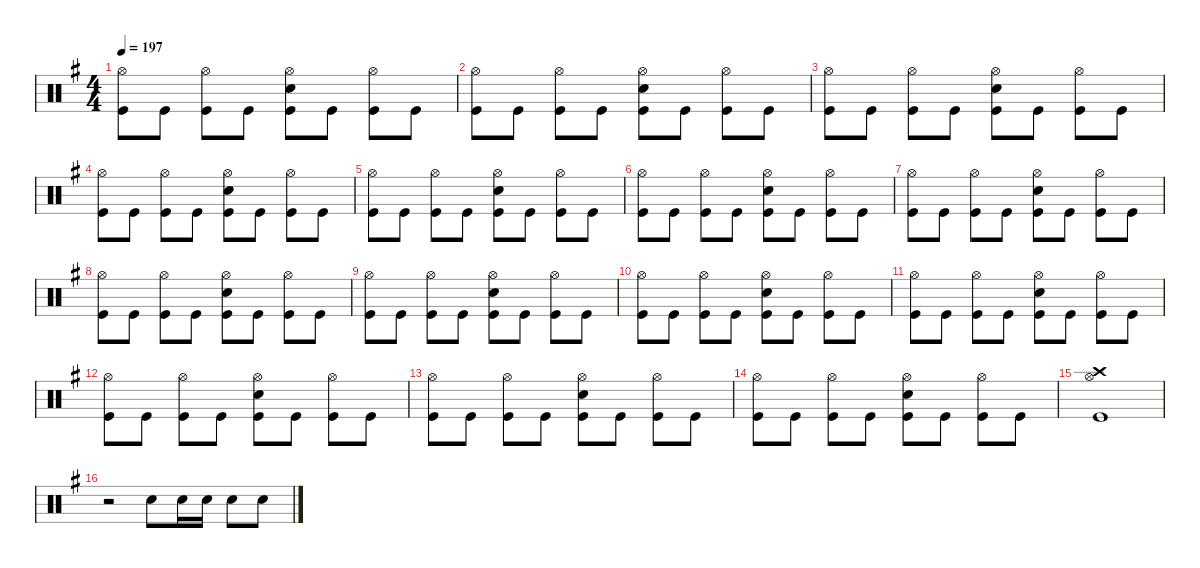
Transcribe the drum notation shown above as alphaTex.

\defaultSystemsLayout 4
\hideDynamics
\bracketExtendMode nobrackets
\singleTrackTrackNamePolicy hidden
\multiTrackTrackNamePolicy hidden
\firstSystemTrackNameMode fullname
\firstSystemTrackNameOrientation horizontal
\otherSystemsTrackNameOrientation horizontal
\track ("Drums" "drm.") {defaultSystemsLayout 4 instrument percussion}
\staff {score}
\articulation defaults
\ts (4 4)
\tempo 197
\clef neutral
\ks eminor
("Hi-Hat (open)"{acc forcenatural} "Kick (hit)"{acc forcenatural}).8{dy f beam Down} "Kick (hit)"{acc forcenatural}.8{beam Down} ("Hi-Hat (open)"{acc forcenatural} "Kick (hit)"{acc forcenatural}).8{beam Down} "Kick (hit)"{acc forcenatural}.8{beam Down} ("Hi-Hat (open)"{acc forcenatural} "Snare (hit) 2"{acc forcenatural} "Kick (hit)"{acc forcenatural}).8{beam Down} "Kick (hit)"{acc forcenatural}.8{beam Down} ("Hi-Hat (open)"{acc forcenatural} "Kick (hit)"{acc forcenatural}).8{beam Down} "Kick (hit)"{acc forcenatural}.8{beam Down} |
("Hi-Hat (open)"{acc forcenatural} "Kick (hit)"{acc forcenatural}).8{beam Down} "Kick (hit)"{acc forcenatural}.8{beam Down} ("Hi-Hat (open)"{acc forcenatural} "Kick (hit)"{acc forcenatural}).8{beam Down} "Kick (hit)"{acc forcenatural}.8{beam Down} ("Hi-Hat (open)"{acc forcenatural} "Snare (hit) 2"{acc forcenatural} "Kick (hit)"{acc forcenatural}).8{beam Down} "Kick (hit)"{acc forcenatural}.8{beam Down} ("Hi-Hat (open)"{acc forcenatural} "Kick (hit)"{acc forcenatural}).8{beam Down} "Kick (hit)"{acc forcenatural}.8{beam Down} |
("Hi-Hat (open)"{acc forcenatural} "Kick (hit)"{acc forcenatural}).8{beam Down} "Kick (hit)"{acc forcenatural}.8{beam Down} ("Hi-Hat (open)"{acc forcenatural} "Kick (hit)"{acc forcenatural}).8{beam Down} "Kick (hit)"{acc forcenatural}.8{beam Down} ("Hi-Hat (open)"{acc forcenatural} "Snare (hit) 2"{acc forcenatural} "Kick (hit)"{acc forcenatural}).8{beam Down} "Kick (hit)"{acc forcenatural}.8{beam Down} ("Hi-Hat (open)"{acc forcenatural} "Kick (hit)"{acc forcenatural}).8{beam Down} "Kick (hit)"{acc forcenatural}.8{beam Down} |
("Hi-Hat (open)"{acc forcenatural} "Kick (hit)"{acc forcenatural}).8{beam Down} "Kick (hit)"{acc forcenatural}.8{beam Down} ("Hi-Hat (open)"{acc forcenatural} "Kick (hit)"{acc forcenatural}).8{beam Down} "Kick (hit)"{acc forcenatural}.8{beam Down} ("Hi-Hat (open)"{acc forcenatural} "Snare (hit) 2"{acc forcenatural} "Kick (hit)"{acc forcenatural}).8{beam Down} "Kick (hit)"{acc forcenatural}.8{beam Down} ("Hi-Hat (open)"{acc forcenatural} "Kick (hit)"{acc forcenatural}).8{beam Down} "Kick (hit)"{acc forcenatural}.8{beam Down} |
("Hi-Hat (open)"{acc forcenatural} "Kick (hit)"{acc forcenatural}).8{beam Down} "Kick (hit)"{acc forcenatural}.8{beam Down} ("Hi-Hat (open)"{acc forcenatural} "Kick (hit)"{acc forcenatural}).8{beam Down} "Kick (hit)"{acc forcenatural}.8{beam Down} ("Hi-Hat (open)"{acc forcenatural} "Snare (hit) 2"{acc forcenatural} "Kick (hit)"{acc forcenatural}).8{beam Down} "Kick (hit)"{acc forcenatural}.8{beam Down} ("Hi-Hat (open)"{acc forcenatural} "Kick (hit)"{acc forcenatural}).8{beam Down} "Kick (hit)"{acc forcenatural}.8{beam Down} |
("Hi-Hat (open)"{acc forcenatural} "Kick (hit)"{acc forcenatural}).8{beam Down} "Kick (hit)"{acc forcenatural}.8{beam Down} ("Hi-Hat (open)"{acc forcenatural} "Kick (hit)"{acc forcenatural}).8{beam Down} "Kick (hit)"{acc forcenatural}.8{beam Down} ("Hi-Hat (open)"{acc forcenatural} "Snare (hit) 2"{acc forcenatural} "Kick (hit)"{acc forcenatural}).8{beam Down} "Kick (hit)"{acc forcenatural}.8{beam Down} ("Hi-Hat (open)"{acc forcenatural} "Kick (hit)"{acc forcenatural}).8{beam Down} "Kick (hit)"{acc forcenatural}.8{beam Down} |
("Hi-Hat (open)"{acc forcenatural} "Kick (hit)"{acc forcenatural}).8{beam Down} "Kick (hit)"{acc forcenatural}.8{beam Down} ("Hi-Hat (open)"{acc forcenatural} "Kick (hit)"{acc forcenatural}).8{beam Down} "Kick (hit)"{acc forcenatural}.8{beam Down} ("Hi-Hat (open)"{acc forcenatural} "Snare (hit) 2"{acc forcenatural} "Kick (hit)"{acc forcenatural}).8{beam Down} "Kick (hit)"{acc forcenatural}.8{beam Down} ("Hi-Hat (open)"{acc forcenatural} "Kick (hit)"{acc forcenatural}).8{beam Down} "Kick (hit)"{acc forcenatural}.8{beam Down} |
("Hi-Hat (open)"{acc forcenatural} "Kick (hit)"{acc forcenatural}).8{beam Down} "Kick (hit)"{acc forcenatural}.8{beam Down} ("Hi-Hat (open)"{acc forcenatural} "Kick (hit)"{acc forcenatural}).8{beam Down} "Kick (hit)"{acc forcenatural}.8{beam Down} ("Hi-Hat (open)"{acc forcenatural} "Snare (hit) 2"{acc forcenatural} "Kick (hit)"{acc forcenatural}).8{beam Down} "Kick (hit)"{acc forcenatural}.8{beam Down} ("Hi-Hat (open)"{acc forcenatural} "Kick (hit)"{acc forcenatural}).8{beam Down} "Kick (hit)"{acc forcenatural}.8{beam Down} |
("Hi-Hat (open)"{acc forcenatural} "Kick (hit)"{acc forcenatural}).8{beam Down} "Kick (hit)"{acc forcenatural}.8{beam Down} ("Hi-Hat (open)"{acc forcenatural} "Kick (hit)"{acc forcenatural}).8{beam Down} "Kick (hit)"{acc forcenatural}.8{beam Down} ("Hi-Hat (open)"{acc forcenatural} "Snare (hit) 2"{acc forcenatural} "Kick (hit)"{acc forcenatural}).8{beam Down} "Kick (hit)"{acc forcenatural}.8{beam Down} ("Hi-Hat (open)"{acc forcenatural} "Kick (hit)"{acc forcenatural}).8{beam Down} "Kick (hit)"{acc forcenatural}.8{beam Down} |
("Hi-Hat (open)"{acc forcenatural} "Kick (hit)"{acc forcenatural}).8{beam Down} "Kick (hit)"{acc forcenatural}.8{beam Down} ("Hi-Hat (open)"{acc forcenatural} "Kick (hit)"{acc forcenatural}).8{beam Down} "Kick (hit)"{acc forcenatural}.8{beam Down} ("Hi-Hat (open)"{acc forcenatural} "Snare (hit) 2"{acc forcenatural} "Kick (hit)"{acc forcenatural}).8{beam Down} "Kick (hit)"{acc forcenatural}.8{beam Down} ("Hi-Hat (open)"{acc forcenatural} "Kick (hit)"{acc forcenatural}).8{beam Down} "Kick (hit)"{acc forcenatural}.8{beam Down} |
("Hi-Hat (open)"{acc forcenatural} "Kick (hit)"{acc forcenatural}).8{beam Down} "Kick (hit)"{acc forcenatural}.8{beam Down} ("Hi-Hat (open)"{acc forcenatural} "Kick (hit)"{acc forcenatural}).8{beam Down} "Kick (hit)"{acc forcenatural}.8{beam Down} ("Hi-Hat (open)"{acc forcenatural} "Snare (hit) 2"{acc forcenatural} "Kick (hit)"{acc forcenatural}).8{beam Down} "Kick (hit)"{acc forcenatural}.8{beam Down} ("Hi-Hat (open)"{acc forcenatural} "Kick (hit)"{acc forcenatural}).8{beam Down} "Kick (hit)"{acc forcenatural}.8{beam Down} |
("Hi-Hat (open)"{acc forcenatural} "Kick (hit)"{acc forcenatural}).8{beam Down} "Kick (hit)"{acc forcenatural}.8{beam Down} ("Hi-Hat (open)"{acc forcenatural} "Kick (hit)"{acc forcenatural}).8{beam Down} "Kick (hit)"{acc forcenatural}.8{beam Down} ("Hi-Hat (open)"{acc forcenatural} "Snare (hit) 2"{acc forcenatural} "Kick (hit)"{acc forcenatural}).8{beam Down} "Kick (hit)"{acc forcenatural}.8{beam Down} ("Hi-Hat (open)"{acc forcenatural} "Kick (hit)"{acc forcenatural}).8{beam Down} "Kick (hit)"{acc forcenatural}.8{beam Down} |
("Hi-Hat (open)"{acc forcenatural} "Kick (hit)"{acc forcenatural}).8{beam Down} "Kick (hit)"{acc forcenatural}.8{beam Down} ("Hi-Hat (open)"{acc forcenatural} "Kick (hit)"{acc forcenatural}).8{beam Down} "Kick (hit)"{acc forcenatural}.8{beam Down} ("Hi-Hat (open)"{acc forcenatural} "Snare (hit) 2"{acc forcenatural} "Kick (hit)"{acc forcenatural}).8{beam Down} "Kick (hit)"{acc forcenatural}.8{beam Down} ("Hi-Hat (open)"{acc forcenatural} "Kick (hit)"{acc forcenatural}).8{beam Down} "Kick (hit)"{acc forcenatural}.8{beam Down} |
("Hi-Hat (open)"{acc forcenatural} "Kick (hit)"{acc forcenatural}).8{beam Down} "Kick (hit)"{acc forcenatural}.8{beam Down} ("Hi-Hat (open)"{acc forcenatural} "Kick (hit)"{acc forcenatural}).8{beam Down} "Kick (hit)"{acc forcenatural}.8{beam Down} ("Hi-Hat (open)"{acc forcenatural} "Snare (hit) 2"{acc forcenatural} "Kick (hit)"{acc forcenatural}).8{beam Down} "Kick (hit)"{acc forcenatural}.8{beam Down} ("Hi-Hat (open)"{acc forcenatural} "Kick (hit)"{acc forcenatural}).8{beam Down} "Kick (hit)"{acc forcenatural}.8{beam Down} |
("Crash high (hit)"{acc forcenatural} "Hi-Hat (open)"{acc forcenatural} "Kick (hit)"{acc forcenatural}).1{beam Down} |
r.2{beam Down} "Snare (hit) 2"{acc forcenatural}.8{dy mf beam Down} "Snare (hit) 2"{acc forcenatural}.16{dy mp beam Down} "Snare (hit) 2"{acc forcenatural}.16{beam Down} "Snare (hit) 2"{acc forcenatural}.8{dy f beam Down} "Snare (hit) 2"{acc forcenatural}.8{beam Down}
